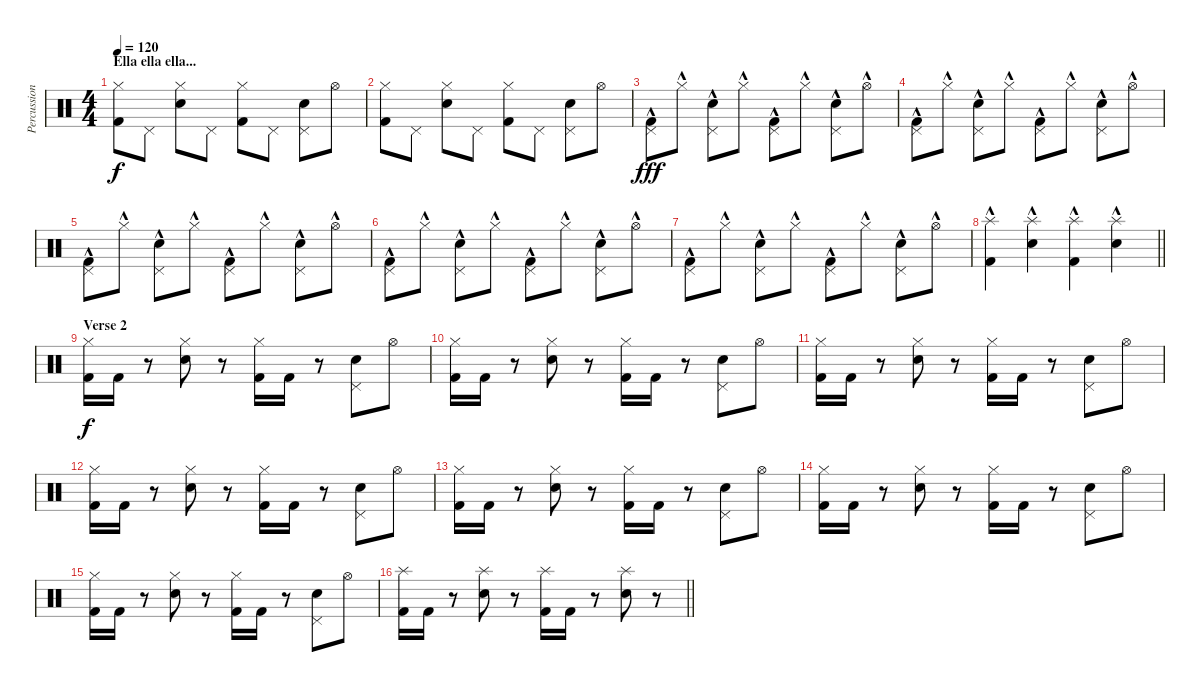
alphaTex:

\track ("Percussion" "Percussion") {instrument percussion}
\staff {score}
\articulation defaults
\ts (4 4)
\section ("" "Ella ella ella...")
\tempo 120
\clef neutral
\ks c
("Hi-Hat (closed)" "Kick (hit) 2").8{dy f} "Pedal Hi-Hat (hit)".8 ("Hi-Hat (closed)" "Electric Snare (hit)").8 "Pedal Hi-Hat (hit)".8 ("Hi-Hat (closed)" "Kick (hit) 2").8 "Pedal Hi-Hat (hit)".8 ("Pedal Hi-Hat (hit)" "Electric Snare (hit)").8 "Hi-Hat (open)".8 |
("Hi-Hat (closed)" "Kick (hit) 2").8 "Pedal Hi-Hat (hit)".8 ("Hi-Hat (closed)" "Electric Snare (hit)").8 "Pedal Hi-Hat (hit)".8 ("Hi-Hat (closed)" "Kick (hit) 2").8 "Pedal Hi-Hat (hit)".8 ("Pedal Hi-Hat (hit)" "Electric Snare (hit)").8 "Hi-Hat (open)".8 |
("Pedal Hi-Hat (hit)" "Kick (hit) 2"{hac}).8{dy fff} "Hi-Hat (closed)"{hac}.8 ("Pedal Hi-Hat (hit)" "Electric Snare (hit)"{hac}).8 "Hi-Hat (closed)"{hac}.8 ("Pedal Hi-Hat (hit)" "Kick (hit) 2"{hac}).8 "Hi-Hat (closed)"{hac}.8 ("Pedal Hi-Hat (hit)" "Electric Snare (hit)"{hac}).8 "Hi-Hat (open)"{hac}.8 |
("Pedal Hi-Hat (hit)" "Kick (hit) 2"{hac}).8 "Hi-Hat (closed)"{hac}.8 ("Pedal Hi-Hat (hit)" "Electric Snare (hit)"{hac}).8 "Hi-Hat (closed)"{hac}.8 ("Pedal Hi-Hat (hit)" "Kick (hit) 2"{hac}).8 "Hi-Hat (closed)"{hac}.8 ("Pedal Hi-Hat (hit)" "Electric Snare (hit)"{hac}).8 "Hi-Hat (open)"{hac}.8 |
("Pedal Hi-Hat (hit)" "Kick (hit) 2"{hac}).8 "Hi-Hat (closed)"{hac}.8 ("Pedal Hi-Hat (hit)" "Electric Snare (hit)"{hac}).8 "Hi-Hat (closed)"{hac}.8 ("Pedal Hi-Hat (hit)" "Kick (hit) 2"{hac}).8 "Hi-Hat (closed)"{hac}.8 ("Pedal Hi-Hat (hit)" "Electric Snare (hit)"{hac}).8 "Hi-Hat (open)"{hac}.8 |
("Pedal Hi-Hat (hit)" "Kick (hit) 2"{hac}).8 "Hi-Hat (closed)"{hac}.8 ("Pedal Hi-Hat (hit)" "Electric Snare (hit)"{hac}).8 "Hi-Hat (closed)"{hac}.8 ("Pedal Hi-Hat (hit)" "Kick (hit) 2"{hac}).8 "Hi-Hat (closed)"{hac}.8 ("Pedal Hi-Hat (hit)" "Electric Snare (hit)"{hac}).8 "Hi-Hat (open)"{hac}.8 |
("Pedal Hi-Hat (hit)" "Kick (hit) 2"{hac}).8 "Hi-Hat (closed)"{hac}.8 ("Pedal Hi-Hat (hit)" "Electric Snare (hit)"{hac}).8 "Hi-Hat (closed)"{hac}.8 ("Pedal Hi-Hat (hit)" "Kick (hit) 2"{hac}).8 "Hi-Hat (closed)"{hac}.8 ("Pedal Hi-Hat (hit)" "Electric Snare (hit)"{hac}).8 "Hi-Hat (open)"{hac}.8 |
\barLineRight lightlight
("Splash (hit)" "Kick (hit) 2"{hac}).4 ("Splash (hit)" "Electric Snare (hit)"{hac}).4 ("Splash (hit)" "Kick (hit) 2"{hac}).4 ("Splash (hit)" "Electric Snare (hit)"{hac}).4 |
\section ("" "Verse 2")
("Hi-Hat (closed)" "Kick (hit) 2").16{dy f} "Kick (hit) 2".16 r.8 ("Hi-Hat (closed)" "Electric Snare (hit)").8 r.8 ("Hi-Hat (closed)" "Kick (hit) 2").16 "Kick (hit) 2".16 r.8 ("Pedal Hi-Hat (hit)" "Electric Snare (hit)").8 "Hi-Hat (open)".8 |
("Hi-Hat (closed)" "Kick (hit) 2").16 "Kick (hit) 2".16 r.8 ("Hi-Hat (closed)" "Electric Snare (hit)").8 r.8 ("Hi-Hat (closed)" "Kick (hit) 2").16 "Kick (hit) 2".16 r.8 ("Pedal Hi-Hat (hit)" "Electric Snare (hit)").8 "Hi-Hat (open)".8 |
("Hi-Hat (closed)" "Kick (hit) 2").16 "Kick (hit) 2".16 r.8 ("Hi-Hat (closed)" "Electric Snare (hit)").8 r.8 ("Hi-Hat (closed)" "Kick (hit) 2").16 "Kick (hit) 2".16 r.8 ("Pedal Hi-Hat (hit)" "Electric Snare (hit)").8 "Hi-Hat (open)".8 |
("Hi-Hat (closed)" "Kick (hit) 2").16 "Kick (hit) 2".16 r.8 ("Hi-Hat (closed)" "Electric Snare (hit)").8 r.8 ("Hi-Hat (closed)" "Kick (hit) 2").16 "Kick (hit) 2".16 r.8 ("Pedal Hi-Hat (hit)" "Electric Snare (hit)").8 "Hi-Hat (open)".8 |
("Hi-Hat (closed)" "Kick (hit) 2").16 "Kick (hit) 2".16 r.8 ("Hi-Hat (closed)" "Electric Snare (hit)").8 r.8 ("Hi-Hat (closed)" "Kick (hit) 2").16 "Kick (hit) 2".16 r.8 ("Pedal Hi-Hat (hit)" "Electric Snare (hit)").8 "Hi-Hat (open)".8 |
("Hi-Hat (closed)" "Kick (hit) 2").16 "Kick (hit) 2".16 r.8 ("Hi-Hat (closed)" "Electric Snare (hit)").8 r.8 ("Hi-Hat (closed)" "Kick (hit) 2").16 "Kick (hit) 2".16 r.8 ("Pedal Hi-Hat (hit)" "Electric Snare (hit)").8 "Hi-Hat (open)".8 |
("Hi-Hat (closed)" "Kick (hit) 2").16 "Kick (hit) 2".16 r.8 ("Hi-Hat (closed)" "Electric Snare (hit)").8 r.8 ("Hi-Hat (closed)" "Kick (hit) 2").16 "Kick (hit) 2".16 r.8 ("Pedal Hi-Hat (hit)" "Electric Snare (hit)").8 "Hi-Hat (open)".8 |
\barLineRight lightlight
("Splash (hit)" "Kick (hit) 2").16 "Kick (hit) 2".16 r.8 ("Splash (hit)" "Electric Snare (hit)").8 r.8 ("Splash (hit)" "Kick (hit) 2").16 "Kick (hit) 2".16 r.8 ("Splash (hit)" "Electric Snare (hit)").8 r.8
